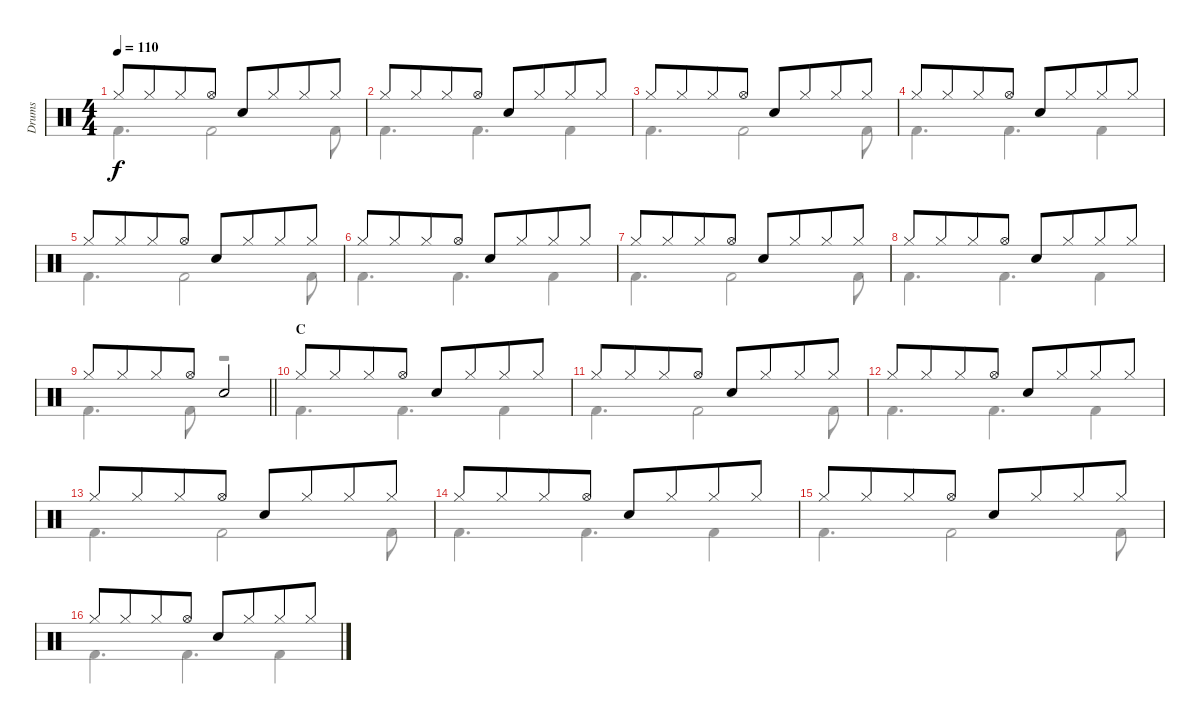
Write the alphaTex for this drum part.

\track ("Drums" "Drums") {instrument percussion}
\staff {score}
\articulation defaults
\voice
\ts (4 4)
\tempo 110
\clef neutral
\ks c "Hi-Hat (closed)".8{dy f} "Hi-Hat (closed)".8{beam merge} "Hi-Hat (closed)".8 "Hi-Hat (open)".8 "Snare (hit) 2".8 "Hi-Hat (closed)".8{beam merge} "Hi-Hat (closed)".8 "Hi-Hat (closed)".8
|
"Hi-Hat (closed)".8 "Hi-Hat (closed)".8{beam merge} "Hi-Hat (closed)".8 "Hi-Hat (open)".8 "Snare (hit) 2".8 "Hi-Hat (closed)".8{beam merge} "Hi-Hat (closed)".8 "Hi-Hat (closed)".8 |
"Hi-Hat (closed)".8 "Hi-Hat (closed)".8{beam merge} "Hi-Hat (closed)".8 "Hi-Hat (open)".8 "Snare (hit) 2".8 "Hi-Hat (closed)".8{beam merge} "Hi-Hat (closed)".8 "Hi-Hat (closed)".8 |
"Hi-Hat (closed)".8 "Hi-Hat (closed)".8{beam merge} "Hi-Hat (closed)".8 "Hi-Hat (open)".8 "Snare (hit) 2".8 "Hi-Hat (closed)".8{beam merge} "Hi-Hat (closed)".8 "Hi-Hat (closed)".8 |
"Hi-Hat (closed)".8 "Hi-Hat (closed)".8{beam merge} "Hi-Hat (closed)".8 "Hi-Hat (open)".8 "Snare (hit) 2".8 "Hi-Hat (closed)".8{beam merge} "Hi-Hat (closed)".8 "Hi-Hat (closed)".8 |
"Hi-Hat (closed)".8 "Hi-Hat (closed)".8{beam merge} "Hi-Hat (closed)".8 "Hi-Hat (open)".8 "Snare (hit) 2".8 "Hi-Hat (closed)".8{beam merge} "Hi-Hat (closed)".8 "Hi-Hat (closed)".8 |
"Hi-Hat (closed)".8 "Hi-Hat (closed)".8{beam merge} "Hi-Hat (closed)".8 "Hi-Hat (open)".8 "Snare (hit) 2".8 "Hi-Hat (closed)".8{beam merge} "Hi-Hat (closed)".8 "Hi-Hat (closed)".8 |
"Hi-Hat (closed)".8 "Hi-Hat (closed)".8{beam merge} "Hi-Hat (closed)".8 "Hi-Hat (open)".8 "Snare (hit) 2".8 "Hi-Hat (closed)".8{beam merge} "Hi-Hat (closed)".8 "Hi-Hat (closed)".8 |
\barLineRight lightlight "Hi-Hat (closed)".8 "Hi-Hat (closed)".8{beam merge} "Hi-Hat (closed)".8 "Hi-Hat (open)".8 "Snare (hit) 2".2
|
\section ("" "C")
"Hi-Hat (closed)".8 "Hi-Hat (closed)".8{beam merge} "Hi-Hat (closed)".8 "Hi-Hat (open)".8 "Snare (hit) 2".8 "Hi-Hat (closed)".8{beam merge} "Hi-Hat (closed)".8 "Hi-Hat (closed)".8 |
"Hi-Hat (closed)".8 "Hi-Hat (closed)".8{beam merge} "Hi-Hat (closed)".8 "Hi-Hat (open)".8 "Snare (hit) 2".8 "Hi-Hat (closed)".8{beam merge} "Hi-Hat (closed)".8 "Hi-Hat (closed)".8 |
"Hi-Hat (closed)".8 "Hi-Hat (closed)".8{beam merge} "Hi-Hat (closed)".8 "Hi-Hat (open)".8 "Snare (hit) 2".8 "Hi-Hat (closed)".8{beam merge} "Hi-Hat (closed)".8 "Hi-Hat (closed)".8 |
"Hi-Hat (closed)".8 "Hi-Hat (closed)".8{beam merge} "Hi-Hat (closed)".8 "Hi-Hat (open)".8 "Snare (hit) 2".8 "Hi-Hat (closed)".8{beam merge} "Hi-Hat (closed)".8 "Hi-Hat (closed)".8 |
"Hi-Hat (closed)".8 "Hi-Hat (closed)".8{beam merge} "Hi-Hat (closed)".8 "Hi-Hat (open)".8 "Snare (hit) 2".8 "Hi-Hat (closed)".8{beam merge} "Hi-Hat (closed)".8 "Hi-Hat (closed)".8 |
"Hi-Hat (closed)".8 "Hi-Hat (closed)".8{beam merge} "Hi-Hat (closed)".8 "Hi-Hat (open)".8 "Snare (hit) 2".8 "Hi-Hat (closed)".8{beam merge} "Hi-Hat (closed)".8 "Hi-Hat (closed)".8 |
"Hi-Hat (closed)".8 "Hi-Hat (closed)".8{beam merge} "Hi-Hat (closed)".8 "Hi-Hat (open)".8 "Snare (hit) 2".8 "Hi-Hat (closed)".8{beam merge} "Hi-Hat (closed)".8 "Hi-Hat (closed)".8
\voice
\clef neutral
\ottava regular
\simile none
\ks c "Kick (hit) 2".4{d dy f} "Kick (hit) 2".2 "Kick (hit) 2".8
|
"Kick (hit) 2".4{d} "Kick (hit) 2".4{d} "Kick (hit) 2".4 |
"Kick (hit) 2".4{d} "Kick (hit) 2".2 "Kick (hit) 2".8 |
"Kick (hit) 2".4{d} "Kick (hit) 2".4{d} "Kick (hit) 2".4 |
"Kick (hit) 2".4{d} "Kick (hit) 2".2 "Kick (hit) 2".8 |
"Kick (hit) 2".4{d} "Kick (hit) 2".4{d} "Kick (hit) 2".4 |
"Kick (hit) 2".4{d} "Kick (hit) 2".2 "Kick (hit) 2".8 |
"Kick (hit) 2".4{d} "Kick (hit) 2".4{d} "Kick (hit) 2".4 |
\barLineRight lightlight "Kick (hit) 2".4{d} "Kick (hit) 2".8
r.2 |
"Kick (hit) 2".4{d} "Kick (hit) 2".4{d} "Kick (hit) 2".4 |
"Kick (hit) 2".4{d} "Kick (hit) 2".2 "Kick (hit) 2".8 |
"Kick (hit) 2".4{d} "Kick (hit) 2".4{d} "Kick (hit) 2".4 |
"Kick (hit) 2".4{d} "Kick (hit) 2".2 "Kick (hit) 2".8 |
"Kick (hit) 2".4{d} "Kick (hit) 2".4{d} "Kick (hit) 2".4 |
"Kick (hit) 2".4{d} "Kick (hit) 2".2 "Kick (hit) 2".8 |
"Kick (hit) 2".4{d} "Kick (hit) 2".4{d} "Kick (hit) 2".4
